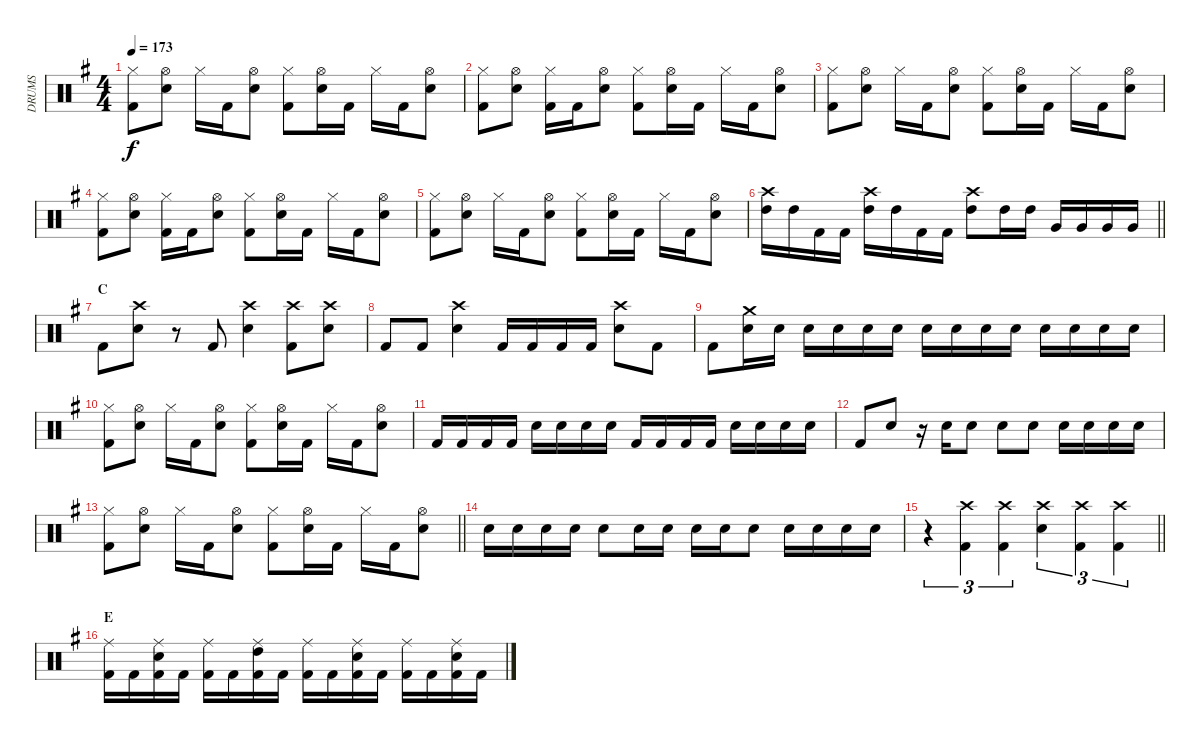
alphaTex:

\track ("DRUMS" "DRUMS") {instrument percussion}
\staff {score}
\articulation defaults
\ts (4 4)
\tempo 173
\clef neutral
\ks g
("Hi-Hat (closed)" "Kick (hit) 2").8{dy f} ("Hi-Hat (open)" "Snare (hit) 2").8 "Hi-Hat (closed)".16 "Kick (hit) 2".16 ("Hi-Hat (open)" "Snare (hit) 2").8 ("Hi-Hat (closed)" "Kick (hit) 2").8 ("Hi-Hat (open)" "Snare (hit) 2").16 "Kick (hit) 2".16 "Hi-Hat (closed)".16 "Kick (hit) 2".16 ("Hi-Hat (open)" "Snare (hit) 2").8 |
("Hi-Hat (closed)" "Kick (hit) 2").8 ("Hi-Hat (open)" "Snare (hit) 2").8 ("Hi-Hat (closed)" "Kick (hit) 2").16 "Kick (hit) 2".16 ("Hi-Hat (open)" "Snare (hit) 2").8 ("Hi-Hat (closed)" "Kick (hit) 2").8 ("Hi-Hat (open)" "Snare (hit) 2").16 "Kick (hit) 2".16 "Hi-Hat (closed)".16 "Kick (hit) 2".16 ("Hi-Hat (open)" "Snare (hit) 2").8 |
("Hi-Hat (closed)" "Kick (hit) 2").8 ("Hi-Hat (open)" "Snare (hit) 2").8 "Hi-Hat (closed)".16 "Kick (hit) 2".16 ("Hi-Hat (open)" "Snare (hit) 2").8 ("Hi-Hat (closed)" "Kick (hit) 2").8 ("Hi-Hat (open)" "Snare (hit) 2").16 "Kick (hit) 2".16 "Hi-Hat (closed)".16 "Kick (hit) 2".16 ("Hi-Hat (open)" "Snare (hit) 2").8 |
("Hi-Hat (closed)" "Kick (hit) 2").8 ("Hi-Hat (open)" "Snare (hit) 2").8 ("Hi-Hat (closed)" "Kick (hit) 2").16 "Kick (hit) 2".16 ("Hi-Hat (open)" "Snare (hit) 2").8 ("Hi-Hat (closed)" "Kick (hit) 2").8 ("Hi-Hat (open)" "Snare (hit) 2").16 "Kick (hit) 2".16 "Hi-Hat (closed)".16 "Kick (hit) 2".16 ("Hi-Hat (open)" "Snare (hit) 2").8 |
("Hi-Hat (closed)" "Kick (hit) 2").8 ("Hi-Hat (open)" "Snare (hit) 2").8 "Hi-Hat (closed)".16 "Kick (hit) 2".16 ("Hi-Hat (open)" "Snare (hit) 2").8 ("Hi-Hat (closed)" "Kick (hit) 2").8 ("Hi-Hat (open)" "Snare (hit) 2").16 "Kick (hit) 2".16 "Hi-Hat (closed)".16 "Kick (hit) 2".16 ("Hi-Hat (open)" "Snare (hit) 2").8 |
\barLineRight lightlight
("Crash high (hit)" "High Tom (hit)").16 "High Tom (hit)".16 "Kick (hit) 2".16 "Kick (hit) 2".16 ("Crash high (hit)" "High Tom (hit)").16 "High Tom (hit)".16 "Kick (hit) 2".16 "Kick (hit) 2".16 ("Crash high (hit)" "High Tom (hit)").8 "High Tom (hit)".16 "High Tom (hit)".16 "Very Low Tom (hit)".16 "Very Low Tom (hit)".16 "Very Low Tom (hit)".16 "Very Low Tom (hit)".16 |
\section ("" "C")
"Kick (hit) 2".8 ("Crash high (hit)" "Snare (hit) 2").8 r.8 "Kick (hit) 2".8 ("Crash high (hit)" "Snare (hit) 2").4 ("Crash high (hit)" "Kick (hit) 2").8 ("Crash high (hit)" "Snare (hit) 2").8 |
"Kick (hit) 2".8 "Kick (hit) 2".8 ("Crash high (hit)" "Snare (hit) 2").4 "Kick (hit) 2".16 "Kick (hit) 2".16 "Kick (hit) 2".16 "Kick (hit) 2".16 ("Crash high (hit)" "Snare (hit) 2").8 "Kick (hit) 2".8 |
"Kick (hit) 2".8 ("Crash medium (hit)" "Snare (hit) 2").16 "Snare (hit) 2".16 "Snare (hit) 2".16 "Snare (hit) 2".16 "Snare (hit) 2".16 "Snare (hit) 2".16 "Snare (hit) 2".16 "Snare (hit) 2".16 "Snare (hit) 2".16 "Snare (hit) 2".16 "Snare (hit) 2".16 "Snare (hit) 2".16 "Snare (hit) 2".16 "Snare (hit) 2".16 |
("Hi-Hat (closed)" "Kick (hit) 2").8 ("Hi-Hat (open)" "Snare (hit) 2").8 "Hi-Hat (closed)".16 "Kick (hit) 2".16 ("Hi-Hat (open)" "Snare (hit) 2").8 ("Hi-Hat (closed)" "Kick (hit) 2").8 ("Hi-Hat (open)" "Snare (hit) 2").16 "Kick (hit) 2".16 "Hi-Hat (closed)".16 "Kick (hit) 2".16 ("Hi-Hat (open)" "Snare (hit) 2").8 |
"Kick (hit) 2".16 "Kick (hit) 2".16 "Kick (hit) 2".16 "Kick (hit) 2".16 "Snare (hit) 2".16 "Snare (hit) 2".16 "Snare (hit) 2".16 "Snare (hit) 2".16 "Kick (hit) 2".16 "Kick (hit) 2".16 "Kick (hit) 2".16 "Kick (hit) 2".16 "Snare (hit) 2".16 "Snare (hit) 2".16 "Snare (hit) 2".16 "Snare (hit) 2".16 |
"Kick (hit) 2".8 "Snare (hit) 2".8 r.16 "Snare (hit) 2".16 "Snare (hit) 2".8 "Snare (hit) 2".8 "Snare (hit) 2".8 "Snare (hit) 2".16 "Snare (hit) 2".16 "Snare (hit) 2".16 "Snare (hit) 2".16 |
\barLineRight lightlight
("Hi-Hat (closed)" "Kick (hit) 2").8 ("Hi-Hat (open)" "Snare (hit) 2").8 "Hi-Hat (closed)".16 "Kick (hit) 2".16 ("Hi-Hat (open)" "Snare (hit) 2").8 ("Hi-Hat (closed)" "Kick (hit) 2").8 ("Hi-Hat (open)" "Snare (hit) 2").16 "Kick (hit) 2".16 "Hi-Hat (closed)".16 "Kick (hit) 2".16 ("Hi-Hat (open)" "Snare (hit) 2").8 |
"Snare (hit) 2".16 "Snare (hit) 2".16 "Snare (hit) 2".16 "Snare (hit) 2".16 "Snare (hit) 2".8 "Snare (hit) 2".16 "Snare (hit) 2".16 "Snare (hit) 2".16 "Snare (hit) 2".16 "Snare (hit) 2".8 "Snare (hit) 2".16 "Snare (hit) 2".16 "Snare (hit) 2".16 "Snare (hit) 2".16 |
\barLineRight lightlight
r.4{tu (3 2)} ("Crash high (hit)" "Kick (hit) 2").4{tu (3 2)} ("Crash high (hit)" "Kick (hit) 2").4{tu (3 2)} ("Crash high (hit)" "Snare (hit) 2").4{tu (3 2)} ("Crash high (hit)" "Kick (hit) 2").4{tu (3 2)} ("Crash high (hit)" "Kick (hit) 2").4{tu (3 2)} |
\section ("" "E")
("Ride (middle)" "Kick (hit) 2").16 "Kick (hit) 2".16 ("Ride (middle)" "Kick (hit) 2" "Snare (hit) 2").16 "Kick (hit) 2".16 ("Ride (middle)" "Kick (hit) 2").16 "Kick (hit) 2".16 ("Ride (middle)" "Kick (hit) 2" "High Tom (hit)").16 "Kick (hit) 2".16 ("Ride (middle)" "Kick (hit) 2").16 "Kick (hit) 2".16 ("Ride (middle)" "Kick (hit) 2" "Snare (hit) 2").16 "Kick (hit) 2".16 ("Ride (middle)" "Kick (hit) 2").16 "Kick (hit) 2".16 ("Ride (middle)" "Kick (hit) 2" "Snare (hit) 2").16 "Kick (hit) 2".16
